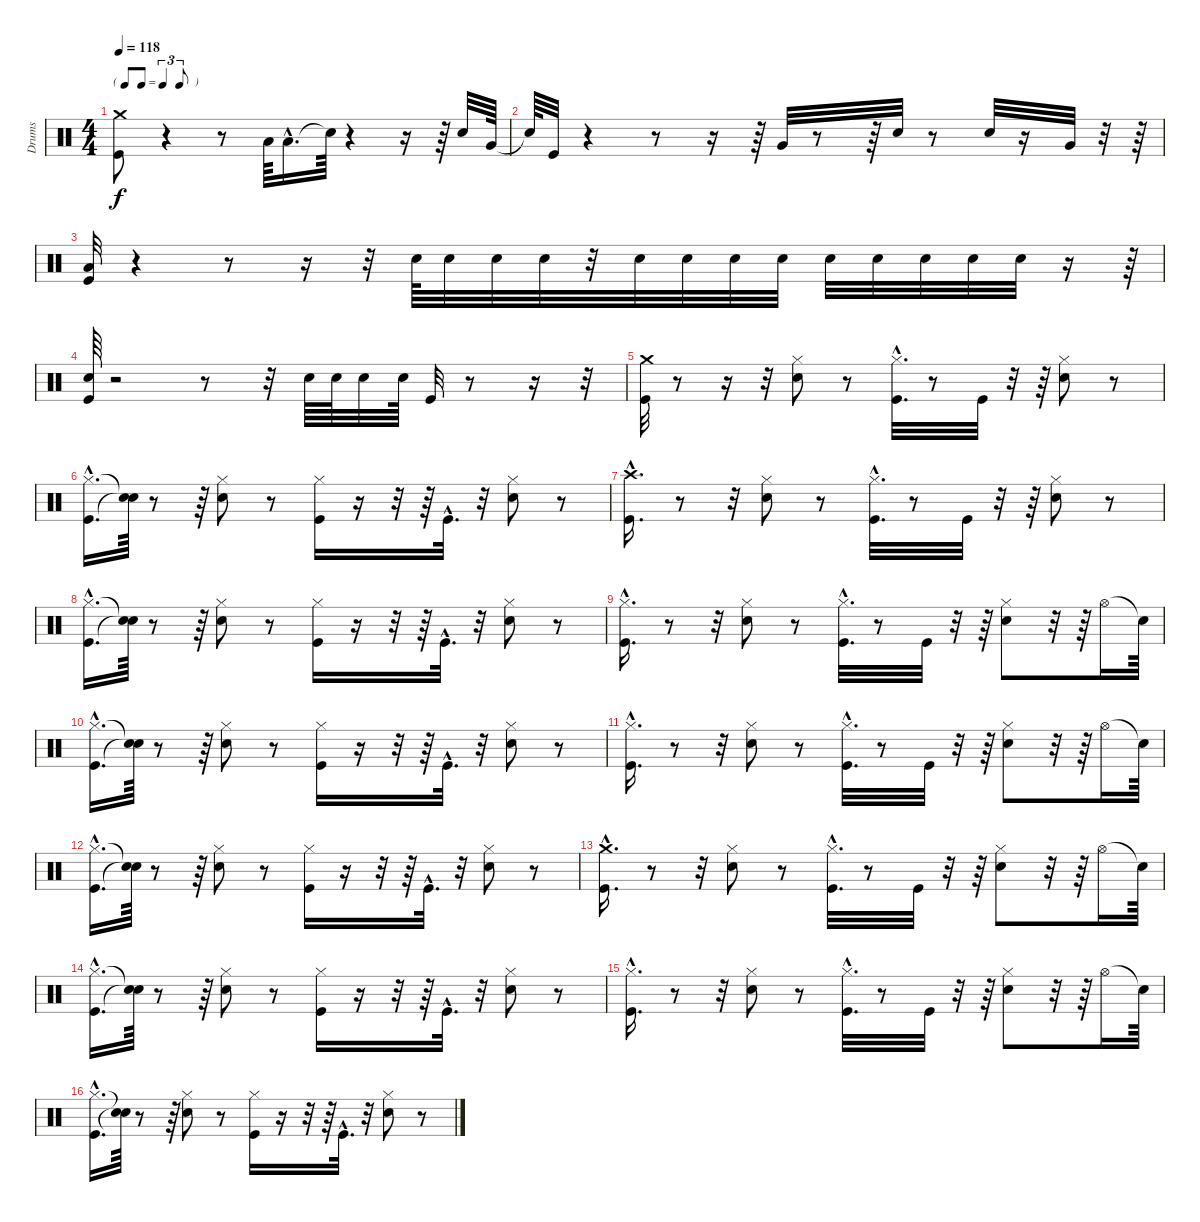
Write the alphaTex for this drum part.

\track ("Drums" "Drums") {instrument percussion}
\staff {score}
\articulation defaults
\ts (4 4)
\tf triplet8th
\tempo 118
\clef neutral
\ks c
("Crash medium (hit)" "Kick (hit)").8{dy f} r.4 r.8 "Low Tom (hit)".64 "Low Tom (hit)"{hac}.16{d} "Snare (hit)"{t}.64 r.4 r.16 r.64 "Snare (hit) 2".32 "Very Low Tom (hit)".64 |
"Snare (hit)"{t}.64 "Kick (hit)".32 r.4 r.8 r.16 r.64 "Very Low Tom (hit)".32 r.8 r.64 "Snare (hit) 2".32 r.8 "Snare (hit) 2".32 r.16 "Very Low Tom (hit)".32 r.32 r.64 |
("Kick (hit)" "Low Floor Tom (hit)").32 r.4 r.8 r.16 r.32 "Snare (hit) 2".64 "Snare (hit) 2".32 "Snare (hit) 2".32 "Snare (hit) 2".32 r.32 "Snare (hit) 2".32 "Snare (hit) 2".32 "Snare (hit) 2".32 "Snare (hit) 2".32 "Snare (hit) 2".32 "Snare (hit) 2".32 "Snare (hit) 2".32 "Snare (hit) 2".32 "Snare (hit) 2".32 r.16 r.64 |
("Kick (hit)" "Snare (hit) 2").64 r.2 r.8 r.32 "Snare (hit) 2".64 "Snare (hit) 2".64 "Snare (hit) 2".32 "Snare (hit) 2".64 "Kick (hit)".32 r.8 r.16 r.32 |
("Crash medium (hit)" "Kick (hit)").32 r.8 r.16 r.32 ("Snare (hit) 2" "Hi-Hat (closed)").8 r.8 ("Kick (hit)"{hac} "Hi-Hat (closed)"{hac}).32{d} r.8 "Kick (hit)".32 r.32 r.64 ("Hi-Hat (closed)" "Snare (hit) 2").8 r.8 |
("Hi-Hat (closed)"{hac} "Kick (hit)"{hac}).16{d} ("Snare (hit)"{t} "Snare (hit)"{t}).64 r.8 r.64 ("Snare (hit) 2" "Hi-Hat (closed)").8 r.8 ("Kick (hit)" "Hi-Hat (closed)").16 r.16 r.32 r.64 "Kick (hit)"{hac}.32{d} r.32 ("Snare (hit) 2" "Hi-Hat (closed)").8 r.8 |
("Crash high (hit)"{hac} "Kick (hit)"{hac}).16{d} r.8 r.32 ("Hi-Hat (closed)" "Snare (hit) 2").8 r.8 ("Hi-Hat (closed)"{hac} "Kick (hit)"{hac}).32{d} r.8 "Kick (hit)".32 r.32 r.64 ("Hi-Hat (closed)" "Snare (hit) 2").8 r.8 |
("Kick (hit)"{hac} "Hi-Hat (closed)"{hac}).16{d} ("Snare (hit)"{t} "Snare (hit)"{t}).64 r.8 r.64 ("Snare (hit) 2" "Hi-Hat (closed)").8 r.8 ("Kick (hit)" "Hi-Hat (closed)").16 r.16 r.32 r.64 "Kick (hit)"{hac}.32{d} r.32 ("Snare (hit) 2" "Hi-Hat (closed)").8 r.8 |
("Kick (hit)"{hac} "Hi-Hat (closed)"{hac}).16{d} r.8 r.32 ("Hi-Hat (closed)" "Snare (hit) 2").8 r.8 ("Hi-Hat (closed)"{hac} "Kick (hit)"{hac}).32{d} r.8 "Kick (hit)".32 r.32 r.64 ("Snare (hit) 2" "Hi-Hat (closed)").8 r.32 r.64 "Hi-Hat (open)".16 "Snare (hit)"{t}.64 |
("Kick (hit)"{hac} "Hi-Hat (closed)"{hac}).16{d} ("Snare (hit)"{t} "Snare (hit)"{t}).64 r.8 r.64 ("Snare (hit) 2" "Hi-Hat (closed)").8 r.8 ("Hi-Hat (closed)" "Kick (hit)").16 r.16 r.32 r.64 "Kick (hit)"{hac}.32{d} r.32 ("Snare (hit) 2" "Hi-Hat (closed)").8 r.8 |
("Kick (hit)"{hac} "Hi-Hat (closed)"{hac}).16{d} r.8 r.32 ("Snare (hit) 2" "Hi-Hat (closed)").8 r.8 ("Kick (hit)"{hac} "Hi-Hat (closed)"{hac}).32{d} r.8 "Kick (hit)".32 r.32 r.64 ("Snare (hit) 2" "Hi-Hat (closed)").8 r.32 r.64 "Hi-Hat (open)".16 "Snare (hit)"{t}.64 |
("Hi-Hat (closed)"{hac} "Kick (hit)"{hac}).16{d} ("Snare (hit)"{t} "Snare (hit)"{t}).64 r.8 r.64 ("Hi-Hat (closed)" "Snare (hit) 2").8 r.8 ("Kick (hit)" "Hi-Hat (closed)").16 r.16 r.32 r.64 "Kick (hit)"{hac}.32{d} r.32 ("Hi-Hat (closed)" "Snare (hit) 2").8 r.8 |
("Crash medium (hit)"{hac} "Kick (hit)"{hac}).16{d} r.8 r.32 ("Snare (hit) 2" "Hi-Hat (closed)").8 r.8 ("Kick (hit)"{hac} "Hi-Hat (closed)"{hac}).32{d} r.8 "Kick (hit)".32 r.32 r.64 ("Hi-Hat (closed)" "Snare (hit) 2").8 r.32 r.64 "Hi-Hat (open)".16 "Snare (hit)"{t}.64 |
("Kick (hit)"{hac} "Hi-Hat (closed)"{hac}).16{d} ("Snare (hit)"{t} "Snare (hit)"{t}).64 r.8 r.64 ("Snare (hit) 2" "Hi-Hat (closed)").8 r.8 ("Kick (hit)" "Hi-Hat (closed)").16 r.16 r.32 r.64 "Kick (hit)"{hac}.32{d} r.32 ("Hi-Hat (closed)" "Snare (hit) 2").8 r.8 |
("Hi-Hat (closed)"{hac} "Kick (hit)"{hac}).16{d} r.8 r.32 ("Snare (hit) 2" "Hi-Hat (closed)").8 r.8 ("Kick (hit)"{hac} "Hi-Hat (closed)"{hac}).32{d} r.8 "Kick (hit)".32 r.32 r.64 ("Snare (hit) 2" "Hi-Hat (closed)").8 r.32 r.64 "Hi-Hat (open)".16 "Snare (hit)"{t}.64 |
("Kick (hit)"{hac} "Hi-Hat (closed)"{hac}).16{d} ("Snare (hit)"{t} "Snare (hit)"{t}).64 r.8 r.64 ("Hi-Hat (closed)" "Snare (hit) 2").8 r.8 ("Hi-Hat (closed)" "Kick (hit)").16 r.16 r.32 r.64 "Kick (hit)"{hac}.32{d} r.32 ("Snare (hit) 2" "Hi-Hat (closed)").8 r.8
